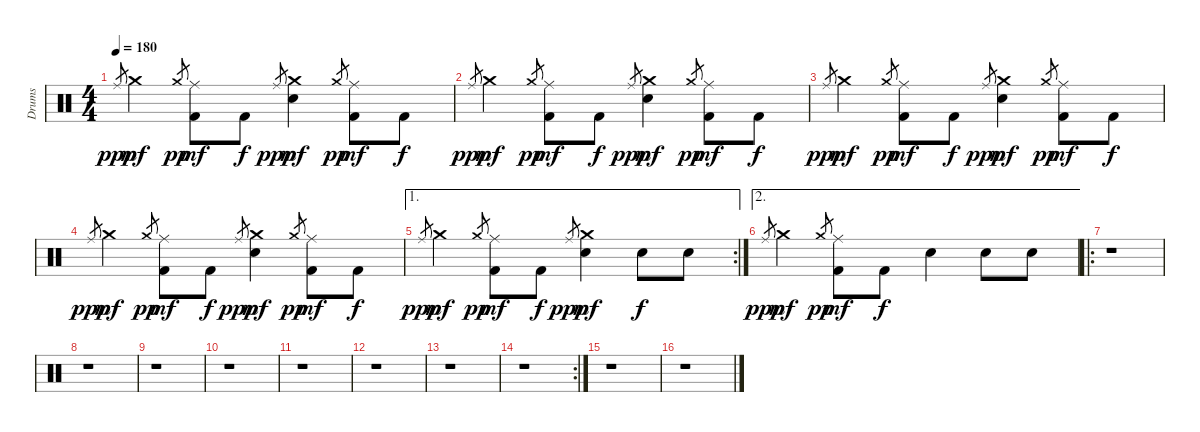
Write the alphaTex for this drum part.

\track ("Drums" "Drums") {instrument percussion}
\staff {score}
\articulation defaults
\ts (4 4)
\tempo 180
\clef neutral
\ks c "Ride (middle)".8{gr dy ppp} "Crash medium (hit)".4{dy mf} "Crash medium (hit)".8{gr dy pp}
("Ride (middle)" "Kick (hit) 2").8{dy mf} "Kick (hit) 2".8{dy f} "Ride (middle)".8{gr dy ppp} ("Crash medium (hit)" "Snare (hit) 2").4{dy mf} "Crash medium (hit)".8{gr dy pp} ("Ride (middle)" "Kick (hit) 2").8{dy mf} "Kick (hit) 2".8{dy f} |
"Ride (middle)".8{gr dy ppp} "Crash medium (hit)".4{dy mf} "Crash medium (hit)".8{gr dy pp} ("Ride (middle)" "Kick (hit) 2").8{dy mf} "Kick (hit) 2".8{dy f} "Ride (middle)".8{gr dy ppp} ("Crash medium (hit)" "Snare (hit) 2").4{dy mf} "Crash medium (hit)".8{gr dy pp} ("Ride (middle)" "Kick (hit) 2").8{dy mf} "Kick (hit) 2".8{dy f} |
"Ride (middle)".8{gr dy ppp} "Crash medium (hit)".4{dy mf} "Crash medium (hit)".8{gr dy pp} ("Ride (middle)" "Kick (hit) 2").8{dy mf} "Kick (hit) 2".8{dy f} "Ride (middle)".8{gr dy ppp} ("Crash medium (hit)" "Snare (hit) 2").4{dy mf} "Crash medium (hit)".8{gr dy pp} ("Ride (middle)" "Kick (hit) 2").8{dy mf} "Kick (hit) 2".8{dy f} |
"Ride (middle)".8{gr dy ppp} "Crash medium (hit)".4{dy mf} "Crash medium (hit)".8{gr dy pp} ("Ride (middle)" "Kick (hit) 2").8{dy mf} "Kick (hit) 2".8{dy f} "Ride (middle)".8{gr dy ppp} ("Crash medium (hit)" "Snare (hit) 2").4{dy mf} "Crash medium (hit)".8{gr dy pp} ("Ride (middle)" "Kick (hit) 2").8{dy mf} "Kick (hit) 2".8{dy f} |
\ae 1
\rc 2 "Ride (middle)".8{gr dy ppp} "Crash medium (hit)".4{dy mf} "Crash medium (hit)".8{gr dy pp}
("Ride (middle)" "Kick (hit) 2").8{dy mf} "Kick (hit) 2".8{dy f} "Ride (middle)".8{gr dy ppp} ("Crash medium (hit)" "Snare (hit) 2").4{dy mf} "Snare (hit) 2".8{dy f} "Snare (hit) 2".8 |
\ae 2 "Ride (middle)".8{gr dy ppp} "Crash medium (hit)".4{dy mf} "Crash medium (hit)".8{gr dy pp}
("Ride (middle)" "Kick (hit) 2").8{dy mf} "Kick (hit) 2".8{dy f} "Snare (hit) 2".4 "Snare (hit) 2".8 "Snare (hit) 2".8 |
\ro
r.1 |
r.1 |
r.1 |
r.1 |
r.1 |
r.1 |
r.1 |
\rc 2
r.1 |
r.1 |
r.1
